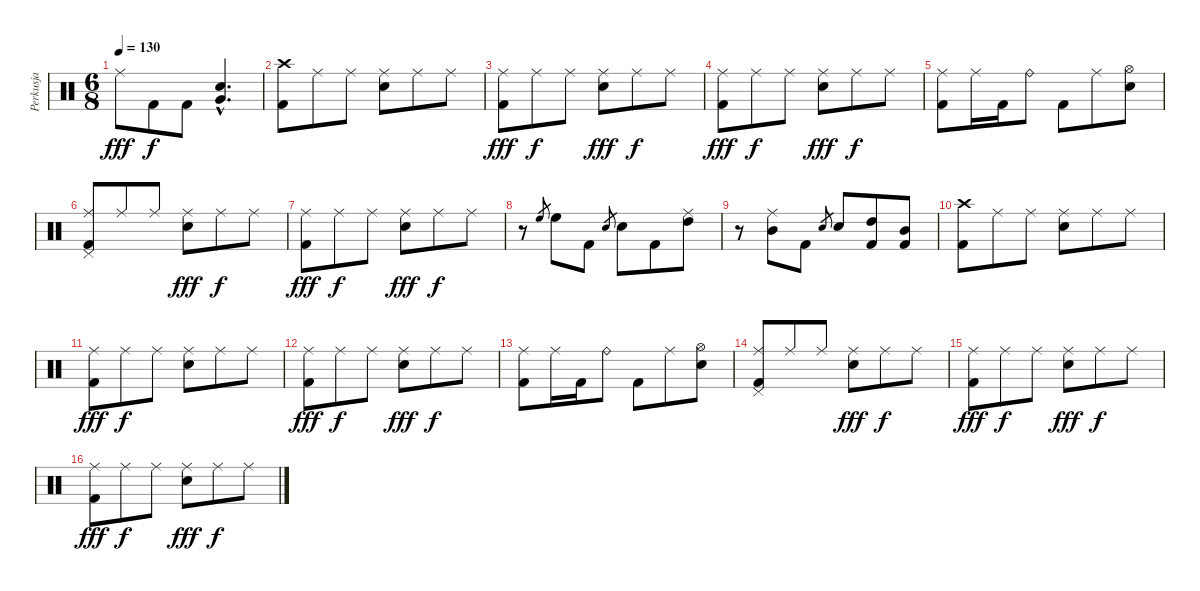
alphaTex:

\track ("Perkusja" "Perkusja") {instrument percussion}
\staff {score}
\articulation defaults
\ts (6 8)
\tempo 130
\clef neutral
\ks c "Ride (middle)".8{dy fff} "Kick (hit) 2".8{dy f} "Kick (hit) 2".8
("Very Low Tom (hit)"{hac} "Electric Snare (hit)"{hac}).4{d} |
("Crash high (hit)" "Kick (hit) 2").8 "Ride (middle)".8 "Ride (middle)".8 ("Ride (middle)" "Electric Snare (hit)").8 "Ride (middle)".8 "Ride (middle)".8 |
("Ride (middle)" "Kick (hit) 2").8{dy fff} "Ride (middle)".8{dy f} "Ride (middle)".8 ("Ride (middle)" "Electric Snare (hit)").8{dy fff} "Ride (middle)".8{dy f} "Ride (middle)".8 |
("Ride (middle)" "Kick (hit) 2").8{dy fff} "Ride (middle)".8{dy f} "Ride (middle)".8 ("Ride (middle)" "Electric Snare (hit)").8{dy fff} "Ride (middle)".8{dy f} "Ride (middle)".8 |
("Ride (middle)" "Kick (hit) 2").8 "Ride (middle)".16 "Kick (hit) 2".16 "Ride (bell)".8 "Kick (hit) 2".8 "Ride (middle)".8 ("Hi-Hat (open)" "Electric Snare (hit)").8 |
("Ride (middle)" "Pedal Hi-Hat (hit)" "Kick (hit) 2").8 "Ride (middle)".8 "Ride (middle)".8 ("Ride (middle)" "Electric Snare (hit)").8{dy fff} "Ride (middle)".8{dy f} "Ride (middle)".8 |
("Ride (middle)" "Kick (hit) 2").8{dy fff} "Ride (middle)".8{dy f} "Ride (middle)".8 ("Ride (middle)" "Electric Snare (hit)").8{dy fff} "Ride (middle)".8{dy f} "Ride (middle)".8 |
r.8 "High Floor Tom (hit)".8{gr} "High Floor Tom (hit)".8 "Kick (hit) 2".8 "Electric Snare (hit)".8{gr} "Electric Snare (hit)".8 "Kick (hit) 2".8 ("Ride (middle)" "High Tom (hit)").8 |
r.8 ("Ride (middle)" "Mid Tom (hit)").8 "Kick (hit) 2".8 "Electric Snare (hit)".8{gr} "Electric Snare (hit)".8 ("High Tom (hit)" "Kick (hit) 2").8 ("Mid Tom (hit)" "Kick (hit) 2").8 |
("Crash high (hit)" "Kick (hit) 2").8 "Ride (middle)".8 "Ride (middle)".8 ("Ride (middle)" "Electric Snare (hit)").8 "Ride (middle)".8 "Ride (middle)".8 |
("Ride (middle)" "Kick (hit) 2").8{dy fff} "Ride (middle)".8{dy f} "Ride (middle)".8 ("Ride (middle)" "Electric Snare (hit)").8 "Ride (middle)".8 "Ride (middle)".8 |
("Ride (middle)" "Kick (hit) 2").8{dy fff} "Ride (middle)".8{dy f} "Ride (middle)".8 ("Ride (middle)" "Electric Snare (hit)").8{dy fff} "Ride (middle)".8{dy f} "Ride (middle)".8 |
("Ride (middle)" "Kick (hit) 2").8 "Ride (middle)".16 "Kick (hit) 2".16 "Ride (bell)".8 "Kick (hit) 2".8 "Ride (middle)".8 ("Hi-Hat (open)" "Electric Snare (hit)").8 |
("Ride (middle)" "Pedal Hi-Hat (hit)" "Kick (hit) 2").8 "Ride (middle)".8 "Ride (middle)".8 ("Ride (middle)" "Electric Snare (hit)").8{dy fff} "Ride (middle)".8{dy f} "Ride (middle)".8 |
("Ride (middle)" "Kick (hit) 2").8{dy fff} "Ride (middle)".8{dy f} "Ride (middle)".8 ("Ride (middle)" "Electric Snare (hit)").8{dy fff} "Ride (middle)".8{dy f} "Ride (middle)".8 |
("Ride (middle)" "Kick (hit) 2").8{dy fff} "Ride (middle)".8{dy f} "Ride (middle)".8 ("Ride (middle)" "Electric Snare (hit)").8{dy fff} "Ride (middle)".8{dy f} "Ride (middle)".8
